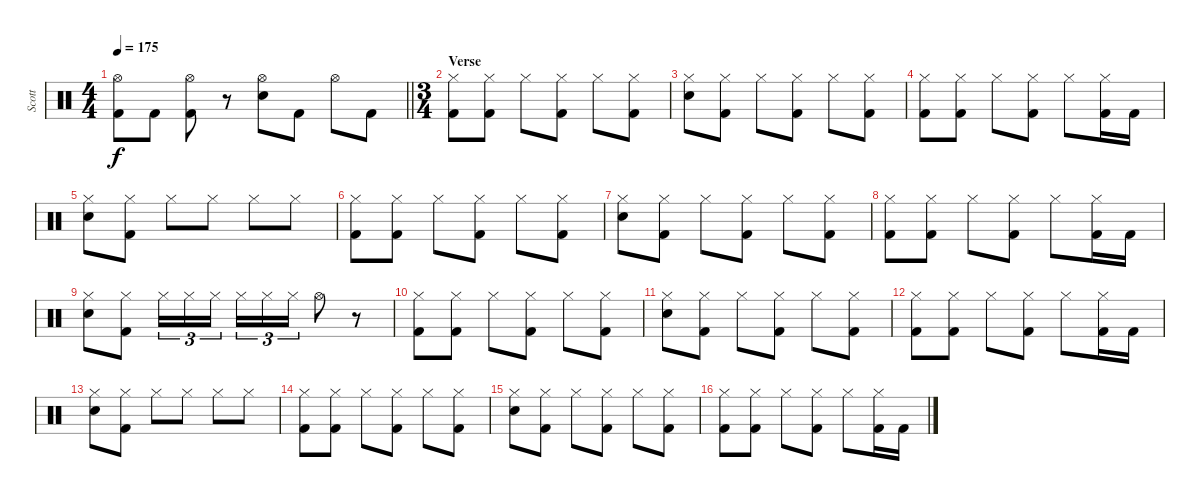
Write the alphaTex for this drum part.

\track ("Scott" "Scott") {instrument percussion}
\staff {score}
\articulation defaults
\ts (4 4)
\tempo 175
\clef neutral
\barLineRight lightlight
\ks c
("Hi-Hat (open)" "Kick (hit) 2").8{dy f} "Kick (hit) 2".8 ("Hi-Hat (open)" "Kick (hit) 2").8 r.8 ("Hi-Hat (open)" "Electric Snare (hit)").8 "Kick (hit) 2".8 "Hi-Hat (open)".8 "Kick (hit) 2".8 |
\ts (3 4)
\section ("" "Verse")
("Hi-Hat (closed)" "Kick (hit) 2").8 ("Hi-Hat (closed)" "Kick (hit) 2").8 "Hi-Hat (closed)".8 ("Hi-Hat (closed)" "Kick (hit) 2").8 "Hi-Hat (closed)".8 ("Hi-Hat (closed)" "Kick (hit) 2").8 |
("Hi-Hat (closed)" "Electric Snare (hit)").8 ("Hi-Hat (closed)" "Kick (hit) 2").8 "Hi-Hat (closed)".8 ("Hi-Hat (closed)" "Kick (hit) 2").8 "Hi-Hat (closed)".8 ("Hi-Hat (closed)" "Kick (hit) 2").8 |
("Hi-Hat (closed)" "Kick (hit) 2").8 ("Hi-Hat (closed)" "Kick (hit) 2").8 "Hi-Hat (closed)".8 ("Hi-Hat (closed)" "Kick (hit) 2").8 "Hi-Hat (closed)".8 ("Hi-Hat (closed)" "Kick (hit) 2").16 "Kick (hit) 2".16 |
("Hi-Hat (closed)" "Electric Snare (hit)").8 ("Hi-Hat (closed)" "Kick (hit) 2").8 "Hi-Hat (closed)".8 "Hi-Hat (closed)".8 "Hi-Hat (closed)".8 "Hi-Hat (closed)".8 |
("Hi-Hat (closed)" "Kick (hit) 2").8 ("Hi-Hat (closed)" "Kick (hit) 2").8 "Hi-Hat (closed)".8 ("Hi-Hat (closed)" "Kick (hit) 2").8 "Hi-Hat (closed)".8 ("Hi-Hat (closed)" "Kick (hit) 2").8 |
("Hi-Hat (closed)" "Electric Snare (hit)").8 ("Hi-Hat (closed)" "Kick (hit) 2").8 "Hi-Hat (closed)".8 ("Hi-Hat (closed)" "Kick (hit) 2").8 "Hi-Hat (closed)".8 ("Hi-Hat (closed)" "Kick (hit) 2").8 |
("Hi-Hat (closed)" "Kick (hit) 2").8 ("Hi-Hat (closed)" "Kick (hit) 2").8 "Hi-Hat (closed)".8 ("Hi-Hat (closed)" "Kick (hit) 2").8 "Hi-Hat (closed)".8 ("Hi-Hat (closed)" "Kick (hit) 2").16 "Kick (hit) 2".16 |
("Hi-Hat (closed)" "Electric Snare (hit)").8 ("Hi-Hat (closed)" "Kick (hit) 2").8 "Hi-Hat (closed)".16{tu (3 2)} "Hi-Hat (closed)".16{tu (3 2)} "Hi-Hat (closed)".16{tu (3 2) beam splitsecondary} "Hi-Hat (closed)".16{tu (3 2)} "Hi-Hat (closed)".16{tu (3 2)} "Hi-Hat (closed)".16{tu (3 2)} "Hi-Hat (open)".8 r.8 |
("Hi-Hat (closed)" "Kick (hit) 2").8 ("Hi-Hat (closed)" "Kick (hit) 2").8 "Hi-Hat (closed)".8 ("Hi-Hat (closed)" "Kick (hit) 2").8 "Hi-Hat (closed)".8 ("Hi-Hat (closed)" "Kick (hit) 2").8 |
("Hi-Hat (closed)" "Electric Snare (hit)").8 ("Hi-Hat (closed)" "Kick (hit) 2").8 "Hi-Hat (closed)".8 ("Hi-Hat (closed)" "Kick (hit) 2").8 "Hi-Hat (closed)".8 ("Hi-Hat (closed)" "Kick (hit) 2").8 |
("Hi-Hat (closed)" "Kick (hit) 2").8 ("Hi-Hat (closed)" "Kick (hit) 2").8 "Hi-Hat (closed)".8 ("Hi-Hat (closed)" "Kick (hit) 2").8 "Hi-Hat (closed)".8 ("Hi-Hat (closed)" "Kick (hit) 2").16 "Kick (hit) 2".16 |
("Hi-Hat (closed)" "Electric Snare (hit)").8 ("Hi-Hat (closed)" "Kick (hit) 2").8 "Hi-Hat (closed)".8 "Hi-Hat (closed)".8 "Hi-Hat (closed)".8 "Hi-Hat (closed)".8 |
("Hi-Hat (closed)" "Kick (hit) 2").8 ("Hi-Hat (closed)" "Kick (hit) 2").8 "Hi-Hat (closed)".8 ("Hi-Hat (closed)" "Kick (hit) 2").8 "Hi-Hat (closed)".8 ("Hi-Hat (closed)" "Kick (hit) 2").8 |
("Hi-Hat (closed)" "Electric Snare (hit)").8 ("Hi-Hat (closed)" "Kick (hit) 2").8 "Hi-Hat (closed)".8 ("Hi-Hat (closed)" "Kick (hit) 2").8 "Hi-Hat (closed)".8 ("Hi-Hat (closed)" "Kick (hit) 2").8 |
("Hi-Hat (closed)" "Kick (hit) 2").8 ("Hi-Hat (closed)" "Kick (hit) 2").8 "Hi-Hat (closed)".8 ("Hi-Hat (closed)" "Kick (hit) 2").8 "Hi-Hat (closed)".8 ("Hi-Hat (closed)" "Kick (hit) 2").16 "Kick (hit) 2".16
